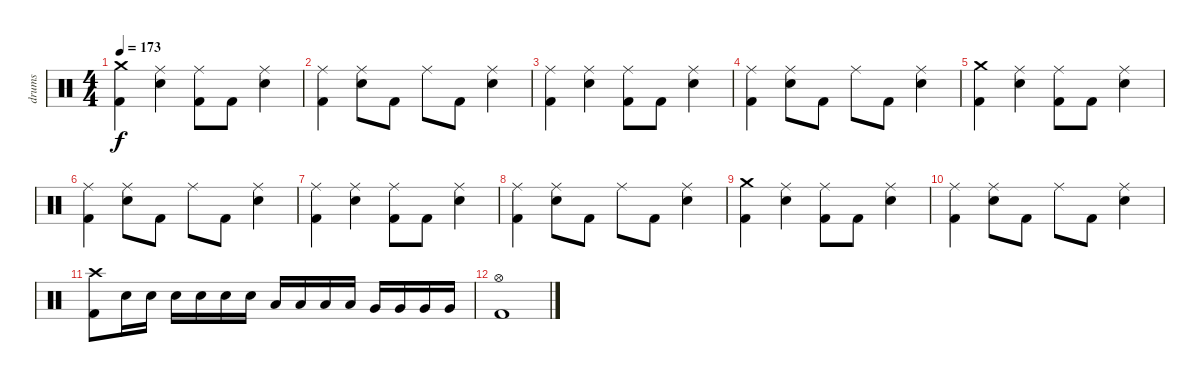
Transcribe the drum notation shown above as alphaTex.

\track ("drums" "drums") {instrument percussion}
\staff {score}
\articulation defaults
\ts (4 4)
\tempo 173
\clef neutral
\ks c
("Crash medium (hit)" "Kick (hit) 2").4{dy f} ("Ride (middle)" "Electric Snare (hit)").4 ("Ride (middle)" "Kick (hit) 2").8 "Kick (hit) 2".8 ("Ride (middle)" "Electric Snare (hit)").4 |
("Ride (middle)" "Kick (hit) 2").4 ("Ride (middle)" "Electric Snare (hit)").8 "Kick (hit) 2".8 "Ride (middle)".8 "Kick (hit) 2".8 ("Ride (middle)" "Electric Snare (hit)").4 |
("Ride (middle)" "Kick (hit) 2").4 ("Ride (middle)" "Electric Snare (hit)").4 ("Ride (middle)" "Kick (hit) 2").8 "Kick (hit) 2".8 ("Ride (middle)" "Electric Snare (hit)").4 |
("Ride (middle)" "Kick (hit) 2").4 ("Ride (middle)" "Electric Snare (hit)").8 "Kick (hit) 2".8 "Ride (middle)".8 "Kick (hit) 2".8 ("Ride (middle)" "Electric Snare (hit)").4 |
("Crash medium (hit)" "Kick (hit) 2").4 ("Ride (middle)" "Electric Snare (hit)").4 ("Ride (middle)" "Kick (hit) 2").8 "Kick (hit) 2".8 ("Ride (middle)" "Electric Snare (hit)").4 |
("Ride (middle)" "Kick (hit) 2").4 ("Ride (middle)" "Electric Snare (hit)").8 "Kick (hit) 2".8 "Ride (middle)".8 "Kick (hit) 2".8 ("Ride (middle)" "Electric Snare (hit)").4 |
("Ride (middle)" "Kick (hit) 2").4 ("Ride (middle)" "Electric Snare (hit)").4 ("Ride (middle)" "Kick (hit) 2").8 "Kick (hit) 2".8 ("Ride (middle)" "Electric Snare (hit)").4 |
("Ride (middle)" "Kick (hit) 2").4 ("Ride (middle)" "Electric Snare (hit)").8 "Kick (hit) 2".8 "Ride (middle)".8 "Kick (hit) 2".8 ("Ride (middle)" "Electric Snare (hit)").4 |
("Crash medium (hit)" "Kick (hit) 2").4 ("Ride (middle)" "Electric Snare (hit)").4 ("Ride (middle)" "Kick (hit) 2").8 "Kick (hit) 2".8 ("Ride (middle)" "Electric Snare (hit)").4 |
("Ride (middle)" "Kick (hit) 2").4 ("Ride (middle)" "Electric Snare (hit)").8 "Kick (hit) 2".8 "Ride (middle)".8 "Kick (hit) 2".8 ("Ride (middle)" "Electric Snare (hit)").4 |
("Crash high (hit)" "Kick (hit) 2").8 "Electric Snare (hit)".16 "Electric Snare (hit)".16 "Electric Snare (hit)".16 "Electric Snare (hit)".16 "Electric Snare (hit)".16 "Electric Snare (hit)".16 "Low Tom (hit)".16 "Low Tom (hit)".16 "Low Tom (hit)".16 "Low Tom (hit)".16 "Very Low Tom (hit)".16 "Very Low Tom (hit)".16 "Very Low Tom (hit)".16 "Very Low Tom (hit)".16 |
("Hi-Hat (open)" "Kick (hit) 2").1
